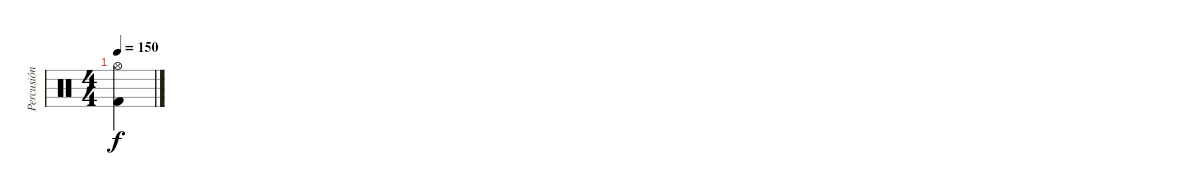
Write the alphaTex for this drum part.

\track ("Percusión" "Percusión") {instrument percussion}
\staff {score}
\articulation defaults
\ts (4 4)
\tempo 150
\clef neutral
\ks c
("Hi-Hat (open)" "Kick (hit) 2").4{dy f}
